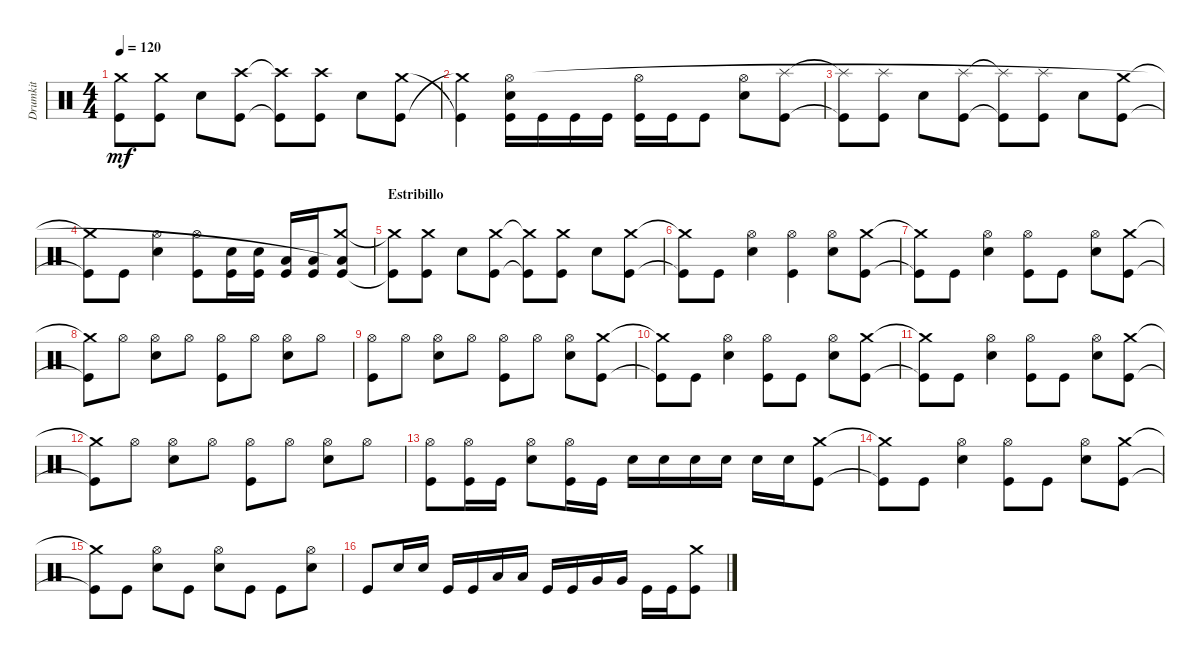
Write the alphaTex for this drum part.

\track ("Drumkit" "Drumkit") {instrument percussion}
\staff {score}
\articulation defaults
\ts (4 4)
\tempo 120
\clef neutral
\ks c
("Kick (hit)"{t} "Crash medium (hit)"{t}).8{dy mf} ("Crash medium (hit)" "Kick (hit)").8 "Snare (hit) 2".8 ("Kick (hit)" "Crash high (hit)").8 ("Kick (hit)"{t} "Crash high (hit)"{t}).8 ("Kick (hit)" "Crash high (hit)").8 "Snare (hit) 2".8 ("Kick (hit)" "Crash medium (hit)").8 |
("Crash medium (hit)"{t} "Kick (hit)"{t}).4 ("Kick (hit)" "Snare (hit) 2" "Hi-Hat (open)").16 "Kick (hit)".16 "Kick (hit)".16 "Kick (hit)".16 ("Kick (hit)" "Hi-Hat (open)").16 "Kick (hit)".16 "Kick (hit)".8 ("Snare (hit) 2" "Hi-Hat (open)").8 ("Kick (hit)" "Splash (hit)").8 |
("Kick (hit)"{t} "Splash (hit)"{t}).8 ("Kick (hit)" "Splash (hit)").8 "Snare (hit) 2".8 ("Kick (hit)" "Splash (hit)").8 ("Kick (hit)"{t} "Splash (hit)"{t}).8 ("Kick (hit)" "Splash (hit)").8 "Snare (hit) 2".8 ("Kick (hit)" "Crash medium (hit)").8 |
("Kick (hit)"{t} "Crash medium (hit)"{t}).8 "Kick (hit)".8 ("Snare (hit) 2" "Hi-Hat (open)").4 ("Kick (hit)" "Hi-Hat (open)").8 ("Kick (hit)" "Snare (hit) 2").16 ("Snare (hit) 2" "Kick (hit)").16 ("Kick (hit)" "Low Floor Tom (hit)").16 ("Low Floor Tom (hit)" "Kick (hit)").16 ("Kick (hit)" "Crash medium (hit)" "Low Floor Tom (hit)"{t}).8 |
\section ("" "Estribillo")
("Kick (hit)"{t} "Crash medium (hit)"{t}).8 ("Kick (hit)" "Crash medium (hit)").8 "Snare (hit) 2".8 ("Kick (hit)" "Crash medium (hit)").8 ("Kick (hit)"{t} "Crash medium (hit)"{t}).8 ("Kick (hit)" "Crash medium (hit)").8 "Snare (hit) 2".8 ("Kick (hit)" "Crash medium (hit)").8 |
("Kick (hit)"{t} "Crash medium (hit)"{t}).8 "Kick (hit)".8 ("Snare (hit) 2" "Hi-Hat (open)").4 ("Kick (hit)" "Hi-Hat (open)").4 ("Snare (hit) 2" "Hi-Hat (open)").8 ("Kick (hit)" "Crash medium (hit)").8 |
("Kick (hit)"{t} "Crash medium (hit)"{t}).8 "Kick (hit)".8 ("Snare (hit) 2" "Hi-Hat (open)").4 ("Kick (hit)" "Hi-Hat (open)").8 "Kick (hit)".8 ("Snare (hit) 2" "Hi-Hat (open)").8 ("Kick (hit)" "Crash medium (hit)").8 |
("Kick (hit)"{t} "Crash medium (hit)"{t}).8 "Hi-Hat (open)".8 ("Snare (hit) 2" "Hi-Hat (open)").8 "Hi-Hat (open)".8 ("Hi-Hat (open)" "Kick (hit)").8 "Hi-Hat (open)".8 ("Hi-Hat (open)" "Snare (hit) 2").8 "Hi-Hat (open)".8 |
("Hi-Hat (open)" "Kick (hit)").8 "Hi-Hat (open)".8 ("Hi-Hat (open)" "Snare (hit) 2").8 "Hi-Hat (open)".8 ("Hi-Hat (open)" "Kick (hit)").8 "Hi-Hat (open)".8 ("Hi-Hat (open)" "Snare (hit) 2").8 ("Kick (hit)" "Crash medium (hit)").8 |
("Kick (hit)"{t} "Crash medium (hit)"{t}).8 "Kick (hit)".8 ("Snare (hit) 2" "Hi-Hat (open)").4 ("Kick (hit)" "Hi-Hat (open)").8 "Kick (hit)".8 ("Snare (hit) 2" "Hi-Hat (open)").8 ("Kick (hit)" "Crash medium (hit)").8 |
("Kick (hit)"{t} "Crash medium (hit)"{t}).8 "Kick (hit)".8 ("Snare (hit) 2" "Hi-Hat (open)").4 ("Kick (hit)" "Hi-Hat (open)").8 "Kick (hit)".8 ("Snare (hit) 2" "Hi-Hat (open)").8 ("Kick (hit)" "Crash medium (hit)").8 |
("Kick (hit)"{t} "Crash medium (hit)"{t}).8 "Hi-Hat (open)".8 ("Snare (hit) 2" "Hi-Hat (open)").8 "Hi-Hat (open)".8 ("Hi-Hat (open)" "Kick (hit)").8 "Hi-Hat (open)".8 ("Hi-Hat (open)" "Snare (hit) 2").8 "Hi-Hat (open)".8 |
("Hi-Hat (open)" "Kick (hit)").8 ("Kick (hit)" "Hi-Hat (open)").16 "Kick (hit)".16 ("Hi-Hat (open)" "Snare (hit) 2").8 ("Kick (hit)" "Hi-Hat (open)").16 "Kick (hit)".16 "Snare (hit) 2".16 "Snare (hit) 2".16 "Snare (hit) 2".16 "Snare (hit) 2".16 "Snare (hit) 2".16 "Snare (hit) 2".16 ("Kick (hit)" "Crash medium (hit)").8 |
("Kick (hit)"{t} "Crash medium (hit)"{t}).8 "Kick (hit)".8 ("Snare (hit) 2" "Hi-Hat (open)").4 ("Kick (hit)" "Hi-Hat (open)").8 "Kick (hit)".8 ("Snare (hit) 2" "Hi-Hat (open)").8 ("Kick (hit)" "Crash medium (hit)").8 |
("Kick (hit)"{t} "Crash medium (hit)"{t}).8 "Kick (hit)".8 ("Snare (hit) 2" "Hi-Hat (open)").8 "Kick (hit)".8 ("Snare (hit) 2" "Hi-Hat (open)").8 "Kick (hit)".8 "Kick (hit)".8 ("Snare (hit) 2" "Hi-Hat (open)").8 |
"Kick (hit)".8 "Snare (hit) 2".16 "Snare (hit) 2".16 "Kick (hit)".16 "Kick (hit)".16 "Low Tom (hit)".16 "Low Tom (hit)".16 "Kick (hit)".16 "Kick (hit)".16 "Very Low Tom (hit)".16 "Very Low Tom (hit)".16 "Kick (hit)".16 "Kick (hit)".16 ("Kick (hit)" "Crash medium (hit)").8
